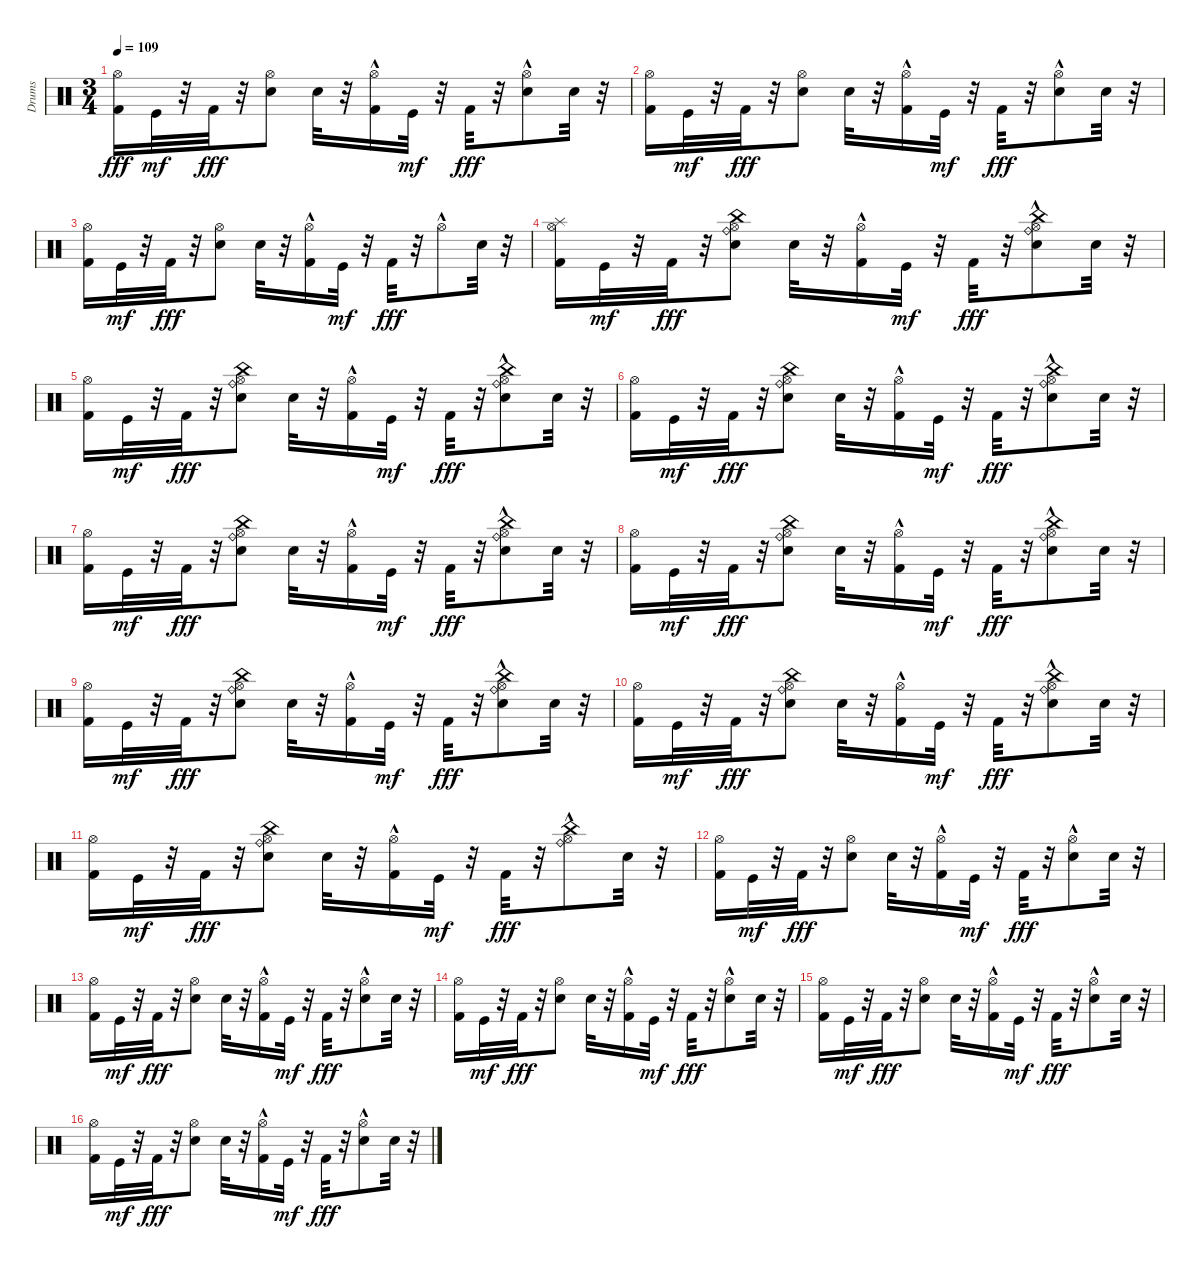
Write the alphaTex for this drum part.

\track ("Drums" "Drums") {instrument percussion}
\staff {score}
\articulation defaults
\ts (3 4)
\tempo 109
\clef neutral
\ks c
("Kick (hit) 2" "Hi-Hat (open)").16{dy fff} "Kick (hit)".32{dy mf} r.32 "Kick (hit) 2".32{dy fff} r.32 ("Electric Snare (hit)" "Hi-Hat (open)").8 "Electric Snare (hit)".32 r.32 ("Kick (hit) 2" "Hi-Hat (open)"{hac}).16 "Kick (hit)".32{dy mf} r.32 "Kick (hit) 2".32{dy fff} r.32 ("Electric Snare (hit)" "Hi-Hat (open)"{hac}).8 "Electric Snare (hit)".32 r.32 |
("Kick (hit) 2" "Hi-Hat (open)").16 "Kick (hit)".32{dy mf} r.32 "Kick (hit) 2".32{dy fff} r.32 ("Electric Snare (hit)" "Hi-Hat (open)").8 "Electric Snare (hit)".32 r.32 ("Kick (hit) 2" "Hi-Hat (open)"{hac}).16 "Kick (hit)".32{dy mf} r.32 "Kick (hit) 2".32{dy fff} r.32 ("Electric Snare (hit)" "Hi-Hat (open)"{hac}).8 "Electric Snare (hit)".32 r.32 |
("Kick (hit) 2" "Hi-Hat (open)").16 "Kick (hit)".32{dy mf} r.32 "Kick (hit) 2".32{dy fff} r.32 ("Electric Snare (hit)" "Hi-Hat (open)").8 "Electric Snare (hit)".32 r.32 ("Kick (hit) 2" "Hi-Hat (open)"{hac}).16 "Kick (hit)".32{dy mf} r.32 "Kick (hit) 2".32{dy fff} r.32 "Hi-Hat (open)"{hac}.8 "Electric Snare (hit)".32 r.32 |
("Splash (hit)" "Kick (hit) 2" "Hi-Hat (open)").16 "Kick (hit)".32{dy mf} r.32 "Kick (hit) 2".32{dy fff} r.32 ("Ride (bell)" "China (hit)" "Electric Snare (hit)" "Hi-Hat (open)").8 "Electric Snare (hit)".32 r.32 ("Kick (hit) 2" "Hi-Hat (open)"{hac}).16 "Kick (hit)".32{dy mf} r.32 "Kick (hit) 2".32{dy fff} r.32 ("Ride (bell)" "China (hit)" "Electric Snare (hit)" "Hi-Hat (open)"{hac}).8 "Electric Snare (hit)".32 r.32 |
("Kick (hit) 2" "Hi-Hat (open)").16 "Kick (hit)".32{dy mf} r.32 "Kick (hit) 2".32{dy fff} r.32 ("Ride (bell)" "Electric Snare (hit)" "Hi-Hat (open)" "China (hit)").8 "Electric Snare (hit)".32 r.32 ("Kick (hit) 2" "Hi-Hat (open)"{hac}).16 "Kick (hit)".32{dy mf} r.32 "Kick (hit) 2".32{dy fff} r.32 ("Ride (bell)" "Electric Snare (hit)" "Hi-Hat (open)"{hac} "China (hit)").8 "Electric Snare (hit)".32 r.32 |
("Kick (hit) 2" "Hi-Hat (open)").16 "Kick (hit)".32{dy mf} r.32 "Kick (hit) 2".32{dy fff} r.32 ("Ride (bell)" "Electric Snare (hit)" "Hi-Hat (open)" "China (hit)").8 "Electric Snare (hit)".32 r.32 ("Kick (hit) 2" "Hi-Hat (open)"{hac}).16 "Kick (hit)".32{dy mf} r.32 "Kick (hit) 2".32{dy fff} r.32 ("Ride (bell)" "Electric Snare (hit)" "Hi-Hat (open)"{hac} "China (hit)").8 "Electric Snare (hit)".32 r.32 |
("Kick (hit) 2" "Hi-Hat (open)").16 "Kick (hit)".32{dy mf} r.32 "Kick (hit) 2".32{dy fff} r.32 ("Ride (bell)" "Electric Snare (hit)" "Hi-Hat (open)" "China (hit)").8 "Electric Snare (hit)".32 r.32 ("Kick (hit) 2" "Hi-Hat (open)"{hac}).16 "Kick (hit)".32{dy mf} r.32 "Kick (hit) 2".32{dy fff} r.32 ("Ride (bell)" "Electric Snare (hit)" "Hi-Hat (open)"{hac} "China (hit)").8 "Electric Snare (hit)".32 r.32 |
("Kick (hit) 2" "Hi-Hat (open)").16 "Kick (hit)".32{dy mf} r.32 "Kick (hit) 2".32{dy fff} r.32 ("Ride (bell)" "Electric Snare (hit)" "Hi-Hat (open)" "China (hit)").8 "Electric Snare (hit)".32 r.32 ("Kick (hit) 2" "Hi-Hat (open)"{hac}).16 "Kick (hit)".32{dy mf} r.32 "Kick (hit) 2".32{dy fff} r.32 ("Ride (bell)" "Electric Snare (hit)" "Hi-Hat (open)"{hac} "China (hit)").8 "Electric Snare (hit)".32 r.32 |
("Kick (hit) 2" "Hi-Hat (open)").16 "Kick (hit)".32{dy mf} r.32 "Kick (hit) 2".32{dy fff} r.32 ("Ride (bell)" "Electric Snare (hit)" "Hi-Hat (open)" "China (hit)").8 "Electric Snare (hit)".32 r.32 ("Kick (hit) 2" "Hi-Hat (open)"{hac}).16 "Kick (hit)".32{dy mf} r.32 "Kick (hit) 2".32{dy fff} r.32 ("Ride (bell)" "Electric Snare (hit)" "Hi-Hat (open)"{hac} "China (hit)").8 "Electric Snare (hit)".32 r.32 |
("Kick (hit) 2" "Hi-Hat (open)").16 "Kick (hit)".32{dy mf} r.32 "Kick (hit) 2".32{dy fff} r.32 ("Ride (bell)" "Electric Snare (hit)" "Hi-Hat (open)" "China (hit)").8 "Electric Snare (hit)".32 r.32 ("Kick (hit) 2" "Hi-Hat (open)"{hac}).16 "Kick (hit)".32{dy mf} r.32 "Kick (hit) 2".32{dy fff} r.32 ("Ride (bell)" "Electric Snare (hit)" "Hi-Hat (open)"{hac} "China (hit)").8 "Electric Snare (hit)".32 r.32 |
("Kick (hit) 2" "Hi-Hat (open)").16 "Kick (hit)".32{dy mf} r.32 "Kick (hit) 2".32{dy fff} r.32 ("Ride (bell)" "Electric Snare (hit)" "Hi-Hat (open)" "China (hit)").8 "Electric Snare (hit)".32 r.32 ("Kick (hit) 2" "Hi-Hat (open)"{hac}).16 "Kick (hit)".32{dy mf} r.32 "Kick (hit) 2".32{dy fff} r.32 ("Ride (bell)" "Hi-Hat (open)"{hac} "China (hit)").8 "Electric Snare (hit)".32 r.32 |
("Kick (hit) 2" "Hi-Hat (open)").16 "Kick (hit)".32{dy mf} r.32 "Kick (hit) 2".32{dy fff} r.32 ("Electric Snare (hit)" "Hi-Hat (open)").8 "Electric Snare (hit)".32 r.32 ("Kick (hit) 2" "Hi-Hat (open)"{hac}).16 "Kick (hit)".32{dy mf} r.32 "Kick (hit) 2".32{dy fff} r.32 ("Electric Snare (hit)" "Hi-Hat (open)"{hac}).8 "Electric Snare (hit)".32 r.32 |
("Kick (hit) 2" "Hi-Hat (open)").16 "Kick (hit)".32{dy mf} r.32 "Kick (hit) 2".32{dy fff} r.32 ("Electric Snare (hit)" "Hi-Hat (open)").8 "Electric Snare (hit)".32 r.32 ("Kick (hit) 2" "Hi-Hat (open)"{hac}).16 "Kick (hit)".32{dy mf} r.32 "Kick (hit) 2".32{dy fff} r.32 ("Electric Snare (hit)" "Hi-Hat (open)"{hac}).8 "Electric Snare (hit)".32 r.32 |
("Kick (hit) 2" "Hi-Hat (open)").16 "Kick (hit)".32{dy mf} r.32 "Kick (hit) 2".32{dy fff} r.32 ("Electric Snare (hit)" "Hi-Hat (open)").8 "Electric Snare (hit)".32 r.32 ("Kick (hit) 2" "Hi-Hat (open)"{hac}).16 "Kick (hit)".32{dy mf} r.32 "Kick (hit) 2".32{dy fff} r.32 ("Electric Snare (hit)" "Hi-Hat (open)"{hac}).8 "Electric Snare (hit)".32 r.32 |
("Kick (hit) 2" "Hi-Hat (open)").16 "Kick (hit)".32{dy mf} r.32 "Kick (hit) 2".32{dy fff} r.32 ("Electric Snare (hit)" "Hi-Hat (open)").8 "Electric Snare (hit)".32 r.32 ("Kick (hit) 2" "Hi-Hat (open)"{hac}).16 "Kick (hit)".32{dy mf} r.32 "Kick (hit) 2".32{dy fff} r.32 ("Electric Snare (hit)" "Hi-Hat (open)"{hac}).8 "Electric Snare (hit)".32 r.32 |
("Kick (hit) 2" "Hi-Hat (open)").16 "Kick (hit)".32{dy mf} r.32 "Kick (hit) 2".32{dy fff} r.32 ("Electric Snare (hit)" "Hi-Hat (open)").8 "Electric Snare (hit)".32 r.32 ("Kick (hit) 2" "Hi-Hat (open)"{hac}).16 "Kick (hit)".32{dy mf} r.32 "Kick (hit) 2".32{dy fff} r.32 ("Electric Snare (hit)" "Hi-Hat (open)"{hac}).8 "Electric Snare (hit)".32 r.32
